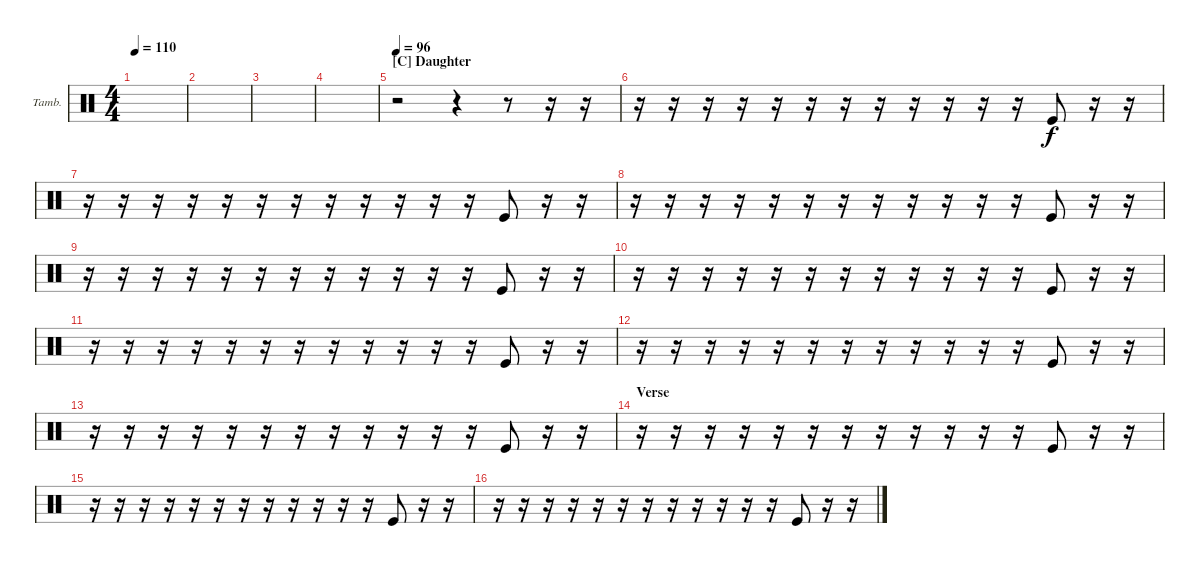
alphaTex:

\defaultSystemsLayout 4
\bracketExtendMode nobrackets
\firstSystemTrackNameOrientation horizontal
\otherSystemsTrackNameOrientation horizontal
\track ("Tambourine" "Tamb.") {instrument percussion}
\staff {score}
\articulation defaults
\ts (4 4)
\tempo 110
\clef neutral
\scale
0.25
\ks c
|
\scale
0.25 |
\scale
0.25 |
\scale
0.25 |
\section ("C" "Daughter")
\tempo 96
\scale
0.25 r.2 r.4 r.8 r.16 r.16 |
\scale
0.25 r.16 r.16 r.16 r.16 r.16 r.16 r.16 r.16 r.16 r.16 r.16 r.16 "Kick (hit)".8 r.16 r.16 |
\scale
0.25 r.16 r.16 r.16 r.16 r.16 r.16 r.16 r.16 r.16 r.16 r.16 r.16 "Kick (hit)".8 r.16 r.16 |
\scale
0.25 r.16 r.16 r.16 r.16 r.16 r.16 r.16 r.16 r.16 r.16 r.16 r.16 "Kick (hit)".8 r.16 r.16 |
\scale
0.25 r.16 r.16 r.16 r.16 r.16 r.16 r.16 r.16 r.16 r.16 r.16 r.16 "Kick (hit)".8 r.16 r.16 |
\scale
0.25 r.16 r.16 r.16 r.16 r.16 r.16 r.16 r.16 r.16 r.16 r.16 r.16 "Kick (hit)".8 r.16 r.16 |
\scale
0.25 r.16 r.16 r.16 r.16 r.16 r.16 r.16 r.16 r.16 r.16 r.16 r.16 "Kick (hit)".8 r.16 r.16 |
\scale
0.25 r.16 r.16 r.16 r.16 r.16 r.16 r.16 r.16 r.16 r.16 r.16 r.16 "Kick (hit)".8 r.16 r.16 |
\scale
0.25 r.16 r.16 r.16 r.16 r.16 r.16 r.16 r.16 r.16 r.16 r.16 r.16 "Kick (hit)".8 r.16 r.16 |
\section ("" "Verse")
\scale
0.25 r.16 r.16 r.16 r.16 r.16 r.16 r.16 r.16 r.16 r.16 r.16 r.16 "Kick (hit)".8 r.16 r.16 |
\scale
0.25 r.16 r.16 r.16 r.16 r.16 r.16 r.16 r.16 r.16 r.16 r.16 r.16 "Kick (hit)".8 r.16 r.16 |
\scale
0.25 r.16 r.16 r.16 r.16 r.16 r.16 r.16 r.16 r.16 r.16 r.16 r.16 "Kick (hit)".8 r.16 r.16
